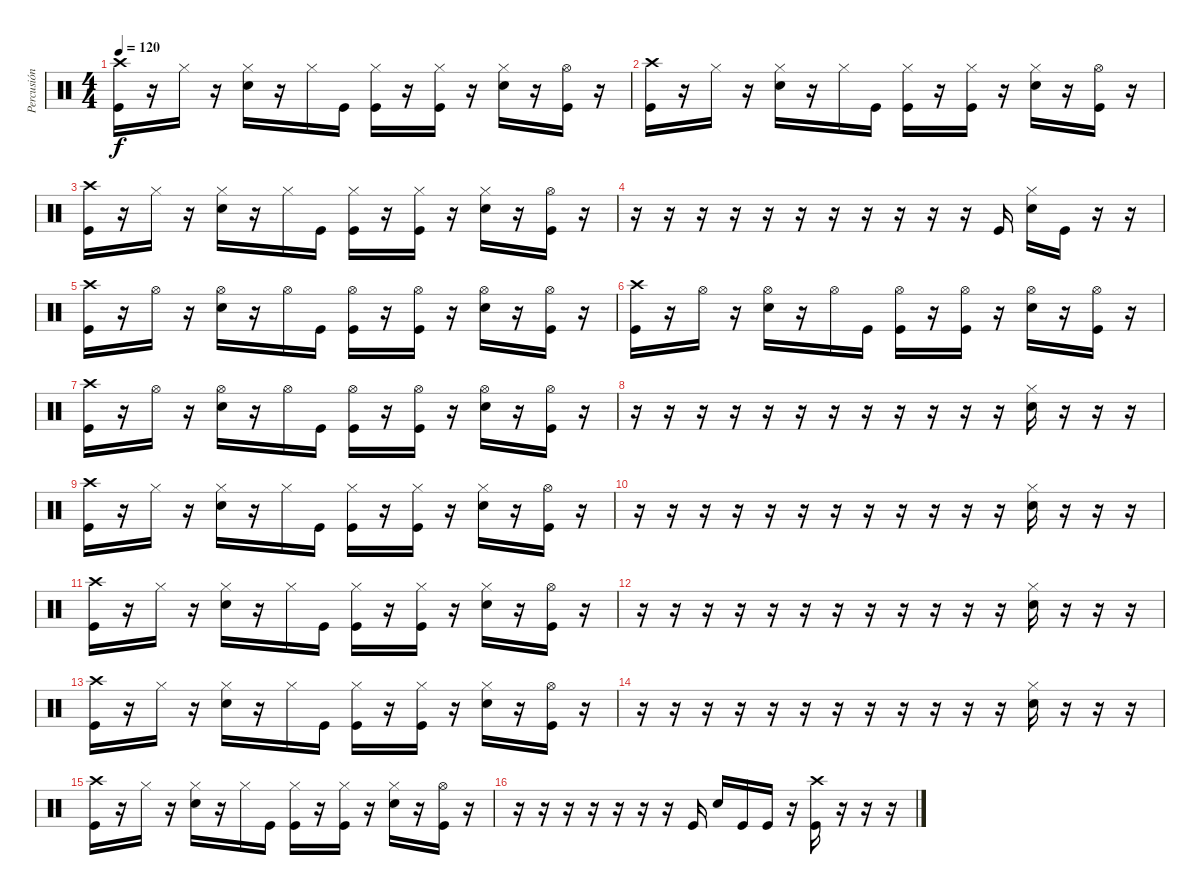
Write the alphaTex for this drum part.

\track ("Percusión" "Percusión") {instrument percussion}
\staff {score}
\articulation defaults
\ts (4 4)
\tempo 120
\clef neutral
\ks c
("Kick (hit)" "Crash high (hit)").16{dy f} r.16 "Hi-Hat (closed)".16 r.16 ("Snare (hit) 2" "Hi-Hat (closed)").16 r.16 "Hi-Hat (closed)".16 "Kick (hit)".16 ("Kick (hit)" "Hi-Hat (closed)").16 r.16 ("Kick (hit)" "Hi-Hat (closed)").16 r.16 ("Snare (hit) 2" "Hi-Hat (closed)").16 r.16 ("Kick (hit)" "Hi-Hat (open)").16 r.16 |
("Kick (hit)" "Crash high (hit)").16 r.16 "Hi-Hat (closed)".16 r.16 ("Snare (hit) 2" "Hi-Hat (closed)").16 r.16 "Hi-Hat (closed)".16 "Kick (hit)".16 ("Kick (hit)" "Hi-Hat (closed)").16 r.16 ("Kick (hit)" "Hi-Hat (closed)").16 r.16 ("Snare (hit) 2" "Hi-Hat (closed)").16 r.16 ("Kick (hit)" "Hi-Hat (open)").16 r.16 |
("Kick (hit)" "Crash high (hit)").16 r.16 "Hi-Hat (closed)".16 r.16 ("Snare (hit) 2" "Hi-Hat (closed)").16 r.16 "Hi-Hat (closed)".16 "Kick (hit)".16 ("Kick (hit)" "Hi-Hat (closed)").16 r.16 ("Kick (hit)" "Hi-Hat (closed)").16 r.16 ("Snare (hit) 2" "Hi-Hat (closed)").16 r.16 ("Kick (hit)" "Hi-Hat (open)").16 r.16 |
r.16 r.16 r.16 r.16 r.16 r.16 r.16 r.16 r.16 r.16 r.16 "Kick (hit)".16 ("Snare (hit) 2" "Hi-Hat (closed)").16 "Kick (hit)".16 r.16 r.16 |
("Kick (hit)" "Crash high (hit)").16 r.16 "Hi-Hat (open)".16 r.16 ("Snare (hit) 2" "Hi-Hat (open)").16 r.16 "Hi-Hat (open)".16 "Kick (hit)".16 ("Kick (hit)" "Hi-Hat (open)").16 r.16 ("Kick (hit)" "Hi-Hat (open)").16 r.16 ("Snare (hit) 2" "Hi-Hat (open)").16 r.16 ("Kick (hit)" "Hi-Hat (open)").16 r.16 |
("Kick (hit)" "Crash high (hit)").16 r.16 "Hi-Hat (open)".16 r.16 ("Snare (hit) 2" "Hi-Hat (open)").16 r.16 "Hi-Hat (open)".16 "Kick (hit)".16 ("Kick (hit)" "Hi-Hat (open)").16 r.16 ("Kick (hit)" "Hi-Hat (open)").16 r.16 ("Snare (hit) 2" "Hi-Hat (open)").16 r.16 ("Kick (hit)" "Hi-Hat (open)").16 r.16 |
("Kick (hit)" "Crash high (hit)").16 r.16 "Hi-Hat (open)".16 r.16 ("Snare (hit) 2" "Hi-Hat (open)").16 r.16 "Hi-Hat (open)".16 "Kick (hit)".16 ("Kick (hit)" "Hi-Hat (open)").16 r.16 ("Kick (hit)" "Hi-Hat (open)").16 r.16 ("Snare (hit) 2" "Hi-Hat (open)").16 r.16 ("Kick (hit)" "Hi-Hat (open)").16 r.16 |
r.16 r.16 r.16 r.16 r.16 r.16 r.16 r.16 r.16 r.16 r.16 r.16 ("Snare (hit) 2" "Hi-Hat (closed)").16 r.16 r.16 r.16 |
("Kick (hit)" "Crash high (hit)").16 r.16 "Hi-Hat (closed)".16 r.16 ("Snare (hit) 2" "Hi-Hat (closed)").16 r.16 "Hi-Hat (closed)".16 "Kick (hit)".16 ("Kick (hit)" "Hi-Hat (closed)").16 r.16 ("Kick (hit)" "Hi-Hat (closed)").16 r.16 ("Snare (hit) 2" "Hi-Hat (closed)").16 r.16 ("Kick (hit)" "Hi-Hat (open)").16 r.16 |
r.16 r.16 r.16 r.16 r.16 r.16 r.16 r.16 r.16 r.16 r.16 r.16 ("Snare (hit) 2" "Hi-Hat (closed)").16 r.16 r.16 r.16 |
("Kick (hit)" "Crash high (hit)").16 r.16 "Hi-Hat (closed)".16 r.16 ("Snare (hit) 2" "Hi-Hat (closed)").16 r.16 "Hi-Hat (closed)".16 "Kick (hit)".16 ("Kick (hit)" "Hi-Hat (closed)").16 r.16 ("Kick (hit)" "Hi-Hat (closed)").16 r.16 ("Snare (hit) 2" "Hi-Hat (closed)").16 r.16 ("Kick (hit)" "Hi-Hat (open)").16 r.16 |
r.16 r.16 r.16 r.16 r.16 r.16 r.16 r.16 r.16 r.16 r.16 r.16 ("Snare (hit) 2" "Hi-Hat (closed)").16 r.16 r.16 r.16 |
("Kick (hit)" "Crash high (hit)").16 r.16 "Hi-Hat (closed)".16 r.16 ("Snare (hit) 2" "Hi-Hat (closed)").16 r.16 "Hi-Hat (closed)".16 "Kick (hit)".16 ("Kick (hit)" "Hi-Hat (closed)").16 r.16 ("Kick (hit)" "Hi-Hat (closed)").16 r.16 ("Snare (hit) 2" "Hi-Hat (closed)").16 r.16 ("Kick (hit)" "Hi-Hat (open)").16 r.16 |
r.16 r.16 r.16 r.16 r.16 r.16 r.16 r.16 r.16 r.16 r.16 r.16 ("Snare (hit) 2" "Hi-Hat (closed)").16 r.16 r.16 r.16 |
("Kick (hit)" "Crash high (hit)").16 r.16 "Hi-Hat (closed)".16 r.16 ("Snare (hit) 2" "Hi-Hat (closed)").16 r.16 "Hi-Hat (closed)".16 "Kick (hit)".16 ("Kick (hit)" "Hi-Hat (closed)").16 r.16 ("Kick (hit)" "Hi-Hat (closed)").16 r.16 ("Snare (hit) 2" "Hi-Hat (closed)").16 r.16 ("Kick (hit)" "Hi-Hat (open)").16 r.16 |
r.16 r.16 r.16 r.16 r.16 r.16 r.16 "Kick (hit)".16 "Snare (hit) 2".16 "Kick (hit)".16 "Kick (hit)".16 r.16 ("Kick (hit)" "Crash high (hit)").16 r.16 r.16 r.16
